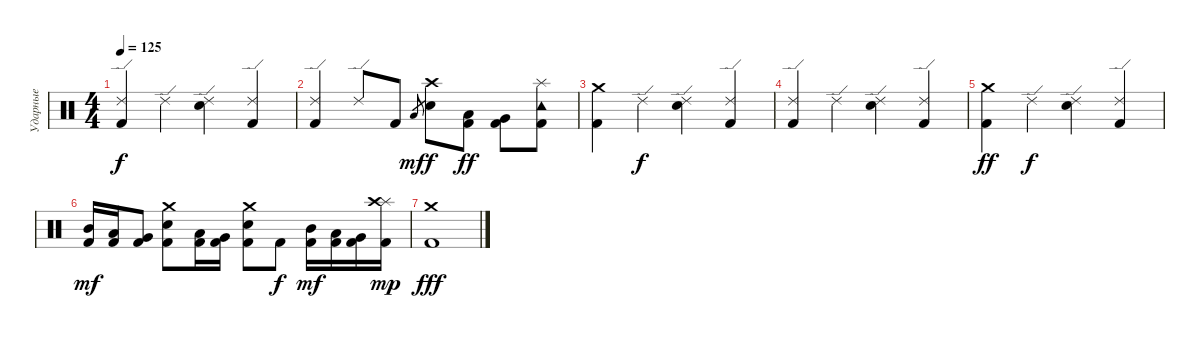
\track ("Ударные" "Ударные") {instrument percussion}
\staff {score}
\articulation defaults
\ts (4 4)
\tempo 125
\clef neutral
\ks c
("Ride (edge) 2" "Kick (hit) 2").4{dy f} "Ride (edge) 2".4 ("Ride (edge) 2" "Electric Snare (hit)").4 ("Ride (edge) 2" "Kick (hit) 2").4 |
("Ride (edge) 2" "Kick (hit) 2").4 "Ride (edge) 2".8 "Kick (hit) 2".8 "Low Tom (hit)".8{gr dy mf} ("Crash high (hit)" "Electric Snare (hit)").8{dy f} ("Low Tom (hit)" "Kick (hit) 2").8{dy ff} ("Very Low Tom (hit)" "Kick (hit) 2").8 ("Tambourine (hit)" "Kick (hit) 2" "Splash (hit)").8 |
("Crash medium (hit)" "Kick (hit) 2").4 "Ride (edge) 2".4{dy f} ("Ride (edge) 2" "Electric Snare (hit)").4 ("Ride (edge) 2" "Kick (hit) 2").4 |
("Ride (edge) 2" "Kick (hit) 2").4 "Ride (edge) 2".4 ("Ride (edge) 2" "Electric Snare (hit)").4 ("Ride (edge) 2" "Kick (hit) 2").4 |
("Crash medium (hit)" "Kick (hit) 2").4{dy ff} "Ride (edge) 2".4{dy f} ("Ride (edge) 2" "Electric Snare (hit)").4 ("Ride (edge) 2" "Kick (hit) 2").4 |
("Mid Tom (hit)" "Kick (hit) 2").16{dy mf} ("Low Tom (hit)" "Kick (hit) 2").16 ("Very Low Tom (hit)" "Kick (hit) 2").8 ("Crash medium (hit)" "Electric Snare (hit)" "Kick (hit) 2").8 ("Low Tom (hit)" "Kick (hit) 2").16 ("Very Low Tom (hit)" "Kick (hit) 2").16 ("Crash medium (hit)" "Electric Snare (hit)" "Kick (hit) 2").8 "Kick (hit) 2".8{dy f} ("Mid Tom (hit)" "Kick (hit) 2").16{dy mf} ("Low Tom (hit)" "Kick (hit) 2").16 ("Very Low Tom (hit)" "Kick (hit) 2").16 ("Splash (hit)" "Crash high (hit)" "Kick (hit) 2").16{dy mp} |
("Crash medium (hit)" "Kick (hit) 2").1{dy fff}
